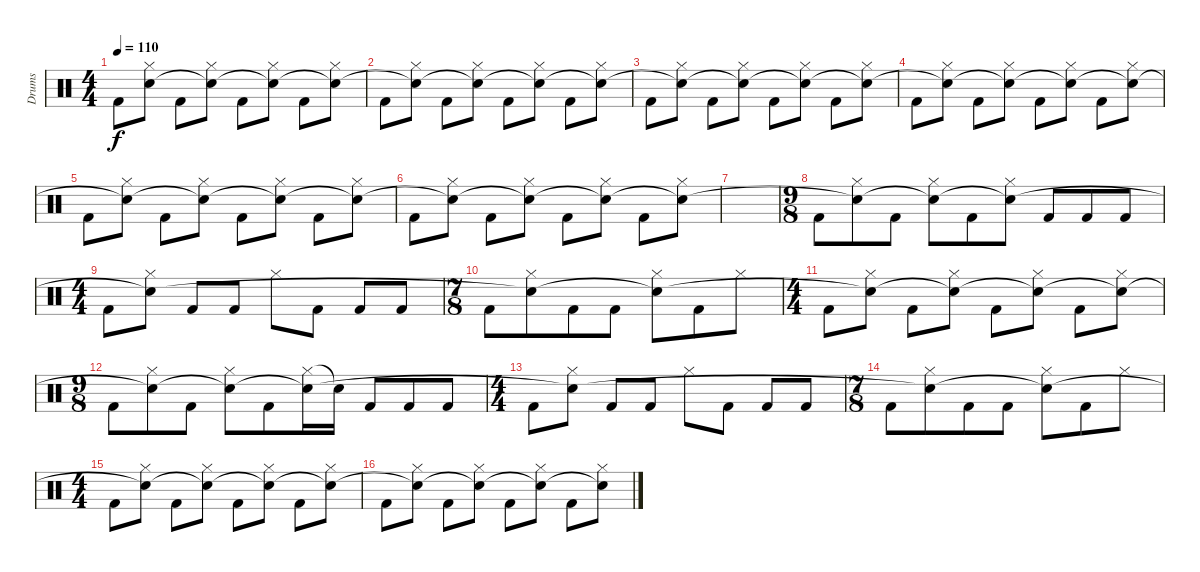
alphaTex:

\track ("Drums" "Drums") {instrument percussion}
\staff {score}
\articulation defaults
\ts (4 4)
\tempo 110
\clef neutral
\ks c "Kick (hit) 2".8{dy f}
("Hi-Hat (closed)" "Snare (hit)"{t}).8 "Kick (hit) 2".8 ("Hi-Hat (closed)" "Snare (hit)"{t}).8 "Kick (hit) 2".8 ("Hi-Hat (closed)" "Snare (hit)"{t}).8 "Kick (hit) 2".8 ("Hi-Hat (closed)" "Snare (hit)"{t}).8 |
"Kick (hit) 2".8 ("Hi-Hat (closed)" "Snare (hit)"{t}).8 "Kick (hit) 2".8 ("Hi-Hat (closed)" "Snare (hit)"{t}).8 "Kick (hit) 2".8 ("Hi-Hat (closed)" "Snare (hit)"{t}).8 "Kick (hit) 2".8 ("Hi-Hat (closed)" "Snare (hit)"{t}).8 |
"Kick (hit) 2".8 ("Hi-Hat (closed)" "Snare (hit)"{t}).8 "Kick (hit) 2".8 ("Hi-Hat (closed)" "Snare (hit)"{t}).8 "Kick (hit) 2".8 ("Hi-Hat (closed)" "Snare (hit)"{t}).8 "Kick (hit) 2".8 ("Hi-Hat (closed)" "Snare (hit)"{t}).8 |
"Kick (hit) 2".8 ("Hi-Hat (closed)" "Snare (hit)"{t}).8 "Kick (hit) 2".8 ("Hi-Hat (closed)" "Snare (hit)"{t}).8 "Kick (hit) 2".8 ("Hi-Hat (closed)" "Snare (hit)"{t}).8 "Kick (hit) 2".8 ("Hi-Hat (closed)" "Snare (hit)"{t}).8 |
"Kick (hit) 2".8 ("Hi-Hat (closed)" "Snare (hit)"{t}).8 "Kick (hit) 2".8 ("Hi-Hat (closed)" "Snare (hit)"{t}).8 "Kick (hit) 2".8 ("Hi-Hat (closed)" "Snare (hit)"{t}).8 "Kick (hit) 2".8 ("Hi-Hat (closed)" "Snare (hit)"{t}).8 |
"Kick (hit) 2".8 ("Hi-Hat (closed)" "Snare (hit)"{t}).8 "Kick (hit) 2".8 ("Hi-Hat (closed)" "Snare (hit)"{t}).8 "Kick (hit) 2".8 ("Hi-Hat (closed)" "Snare (hit)"{t}).8 "Kick (hit) 2".8 ("Hi-Hat (closed)" "Snare (hit)"{t}).8 |
|
\ts (9 8)
"Kick (hit) 2".8 ("Hi-Hat (closed)" "Snare (hit)"{t}).8 "Kick (hit) 2".8 ("Hi-Hat (closed)" "Snare (hit)"{t}).8 "Kick (hit) 2".8 ("Hi-Hat (closed)" "Snare (hit)"{t}).8 "Kick (hit) 2".8 "Kick (hit) 2".8 "Kick (hit) 2".8 |
\ts (4 4)
"Kick (hit) 2".8 ("Hi-Hat (closed)" "Snare (hit)"{t}).8 "Kick (hit) 2".8 "Kick (hit) 2".8 "Hi-Hat (closed)".8 "Kick (hit) 2".8 "Kick (hit) 2".8 "Kick (hit) 2".8 |
\ts (7 8)
"Kick (hit) 2".8 ("Hi-Hat (closed)" "Snare (hit)"{t}).8 "Kick (hit) 2".8 "Kick (hit) 2".8 ("Hi-Hat (closed)" "Snare (hit)"{t}).8 "Kick (hit) 2".8 "Hi-Hat (closed)".8 |
\ts (4 4)
"Kick (hit) 2".8 ("Hi-Hat (closed)" "Snare (hit)"{t}).8 "Kick (hit) 2".8 ("Hi-Hat (closed)" "Snare (hit)"{t}).8 "Kick (hit) 2".8 ("Hi-Hat (closed)" "Snare (hit)"{t}).8 "Kick (hit) 2".8 ("Hi-Hat (closed)" "Snare (hit)"{t}).8 |
\ts (9 8)
"Kick (hit) 2".8 ("Hi-Hat (closed)" "Snare (hit)"{t}).8 "Kick (hit) 2".8 ("Hi-Hat (closed)" "Snare (hit)"{t}).8 "Kick (hit) 2".8 ("Hi-Hat (closed)" "Snare (hit)"{t}).16 "Snare (hit)"{t}.16 "Kick (hit) 2".8 "Kick (hit) 2".8 "Kick (hit) 2".8 |
\ts (4 4)
"Kick (hit) 2".8 ("Hi-Hat (closed)" "Snare (hit)"{t}).8 "Kick (hit) 2".8 "Kick (hit) 2".8 "Hi-Hat (closed)".8 "Kick (hit) 2".8 "Kick (hit) 2".8 "Kick (hit) 2".8 |
\ts (7 8)
"Kick (hit) 2".8 ("Hi-Hat (closed)" "Snare (hit)"{t}).8 "Kick (hit) 2".8 "Kick (hit) 2".8 ("Hi-Hat (closed)" "Snare (hit)"{t}).8 "Kick (hit) 2".8 "Hi-Hat (closed)".8 |
\ts (4 4)
"Kick (hit) 2".8 ("Hi-Hat (closed)" "Snare (hit)"{t}).8 "Kick (hit) 2".8 ("Hi-Hat (closed)" "Snare (hit)"{t}).8 "Kick (hit) 2".8 ("Hi-Hat (closed)" "Snare (hit)"{t}).8 "Kick (hit) 2".8 ("Hi-Hat (closed)" "Snare (hit)"{t}).8 |
"Kick (hit) 2".8 ("Hi-Hat (closed)" "Snare (hit)"{t}).8 "Kick (hit) 2".8 ("Hi-Hat (closed)" "Snare (hit)"{t}).8 "Kick (hit) 2".8 ("Hi-Hat (closed)" "Snare (hit)"{t}).8 "Kick (hit) 2".8 ("Hi-Hat (closed)" "Snare (hit)"{t}).8
